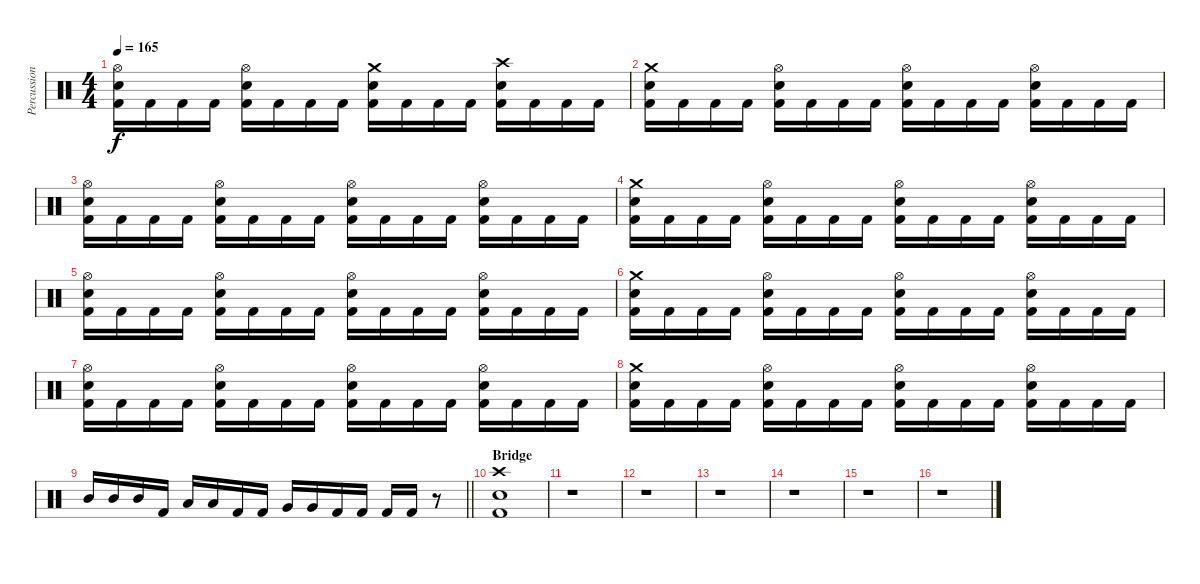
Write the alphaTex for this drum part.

\track ("Percussions" "Percussion") {instrument percussion}
\staff {score}
\articulation defaults
\ts (4 4)
\tempo 165
\clef neutral
\ks c
("Hi-Hat (open)" "Electric Snare (hit)" "Kick (hit) 2").16{dy f} "Kick (hit) 2".16 "Kick (hit) 2".16 "Kick (hit) 2".16 ("Hi-Hat (open)" "Electric Snare (hit)" "Kick (hit) 2").16 "Kick (hit) 2".16 "Kick (hit) 2".16 "Kick (hit) 2".16 ("Crash medium (hit)" "Electric Snare (hit)" "Kick (hit) 2").16 "Kick (hit) 2".16 "Kick (hit) 2".16 "Kick (hit) 2".16 ("Crash high (hit)" "Electric Snare (hit)" "Kick (hit) 2").16 "Kick (hit) 2".16 "Kick (hit) 2".16 "Kick (hit) 2".16 |
("Crash medium (hit)" "Electric Snare (hit)" "Kick (hit) 2").16 "Kick (hit) 2".16 "Kick (hit) 2".16 "Kick (hit) 2".16 ("Hi-Hat (open)" "Electric Snare (hit)" "Kick (hit) 2").16 "Kick (hit) 2".16 "Kick (hit) 2".16 "Kick (hit) 2".16 ("Hi-Hat (open)" "Electric Snare (hit)" "Kick (hit) 2").16 "Kick (hit) 2".16 "Kick (hit) 2".16 "Kick (hit) 2".16 ("Hi-Hat (open)" "Electric Snare (hit)" "Kick (hit) 2").16 "Kick (hit) 2".16 "Kick (hit) 2".16 "Kick (hit) 2".16 |
("Hi-Hat (open)" "Electric Snare (hit)" "Kick (hit) 2").16 "Kick (hit) 2".16 "Kick (hit) 2".16 "Kick (hit) 2".16 ("Hi-Hat (open)" "Electric Snare (hit)" "Kick (hit) 2").16 "Kick (hit) 2".16 "Kick (hit) 2".16 "Kick (hit) 2".16 ("Hi-Hat (open)" "Electric Snare (hit)" "Kick (hit) 2").16 "Kick (hit) 2".16 "Kick (hit) 2".16 "Kick (hit) 2".16 ("Hi-Hat (open)" "Electric Snare (hit)" "Kick (hit) 2").16 "Kick (hit) 2".16 "Kick (hit) 2".16 "Kick (hit) 2".16 |
("Crash medium (hit)" "Electric Snare (hit)" "Kick (hit) 2").16 "Kick (hit) 2".16 "Kick (hit) 2".16 "Kick (hit) 2".16 ("Hi-Hat (open)" "Electric Snare (hit)" "Kick (hit) 2").16 "Kick (hit) 2".16 "Kick (hit) 2".16 "Kick (hit) 2".16 ("Hi-Hat (open)" "Electric Snare (hit)" "Kick (hit) 2").16 "Kick (hit) 2".16 "Kick (hit) 2".16 "Kick (hit) 2".16 ("Hi-Hat (open)" "Electric Snare (hit)" "Kick (hit) 2").16 "Kick (hit) 2".16 "Kick (hit) 2".16 "Kick (hit) 2".16 |
("Hi-Hat (open)" "Electric Snare (hit)" "Kick (hit) 2").16 "Kick (hit) 2".16 "Kick (hit) 2".16 "Kick (hit) 2".16 ("Hi-Hat (open)" "Electric Snare (hit)" "Kick (hit) 2").16 "Kick (hit) 2".16 "Kick (hit) 2".16 "Kick (hit) 2".16 ("Hi-Hat (open)" "Electric Snare (hit)" "Kick (hit) 2").16 "Kick (hit) 2".16 "Kick (hit) 2".16 "Kick (hit) 2".16 ("Hi-Hat (open)" "Electric Snare (hit)" "Kick (hit) 2").16 "Kick (hit) 2".16 "Kick (hit) 2".16 "Kick (hit) 2".16 |
("Crash medium (hit)" "Electric Snare (hit)" "Kick (hit) 2").16 "Kick (hit) 2".16 "Kick (hit) 2".16 "Kick (hit) 2".16 ("Hi-Hat (open)" "Electric Snare (hit)" "Kick (hit) 2").16 "Kick (hit) 2".16 "Kick (hit) 2".16 "Kick (hit) 2".16 ("Hi-Hat (open)" "Electric Snare (hit)" "Kick (hit) 2").16 "Kick (hit) 2".16 "Kick (hit) 2".16 "Kick (hit) 2".16 ("Hi-Hat (open)" "Electric Snare (hit)" "Kick (hit) 2").16 "Kick (hit) 2".16 "Kick (hit) 2".16 "Kick (hit) 2".16 |
("Hi-Hat (open)" "Electric Snare (hit)" "Kick (hit) 2").16 "Kick (hit) 2".16 "Kick (hit) 2".16 "Kick (hit) 2".16 ("Hi-Hat (open)" "Electric Snare (hit)" "Kick (hit) 2").16 "Kick (hit) 2".16 "Kick (hit) 2".16 "Kick (hit) 2".16 ("Hi-Hat (open)" "Electric Snare (hit)" "Kick (hit) 2").16 "Kick (hit) 2".16 "Kick (hit) 2".16 "Kick (hit) 2".16 ("Hi-Hat (open)" "Electric Snare (hit)" "Kick (hit) 2").16 "Kick (hit) 2".16 "Kick (hit) 2".16 "Kick (hit) 2".16 |
("Crash medium (hit)" "Electric Snare (hit)" "Kick (hit) 2").16 "Kick (hit) 2".16 "Kick (hit) 2".16 "Kick (hit) 2".16 ("Hi-Hat (open)" "Electric Snare (hit)" "Kick (hit) 2").16 "Kick (hit) 2".16 "Kick (hit) 2".16 "Kick (hit) 2".16 ("Hi-Hat (open)" "Electric Snare (hit)" "Kick (hit) 2").16 "Kick (hit) 2".16 "Kick (hit) 2".16 "Kick (hit) 2".16 ("Hi-Hat (open)" "Electric Snare (hit)" "Kick (hit) 2").16 "Kick (hit) 2".16 "Kick (hit) 2".16 "Kick (hit) 2".16 |
\barLineRight lightlight "Mid Tom (hit)".16 "Mid Tom (hit)".16 "Mid Tom (hit)".16 "Kick (hit) 2".16 "Low Tom (hit)".16 "Low Tom (hit)".16 "Kick (hit) 2".16 "Kick (hit) 2".16 "Very Low Tom (hit)".16 "Very Low Tom (hit)".16 "Kick (hit) 2".16 "Kick (hit) 2".16 "Kick (hit) 2".16 "Kick (hit) 2".16
r.8 |
\section ("" "Bridge")
("Crash high (hit)" "Electric Snare (hit)" "Kick (hit) 2").1 |
r.1 |
r.1 |
r.1 |
r.1 |
r.1 |
r.1
